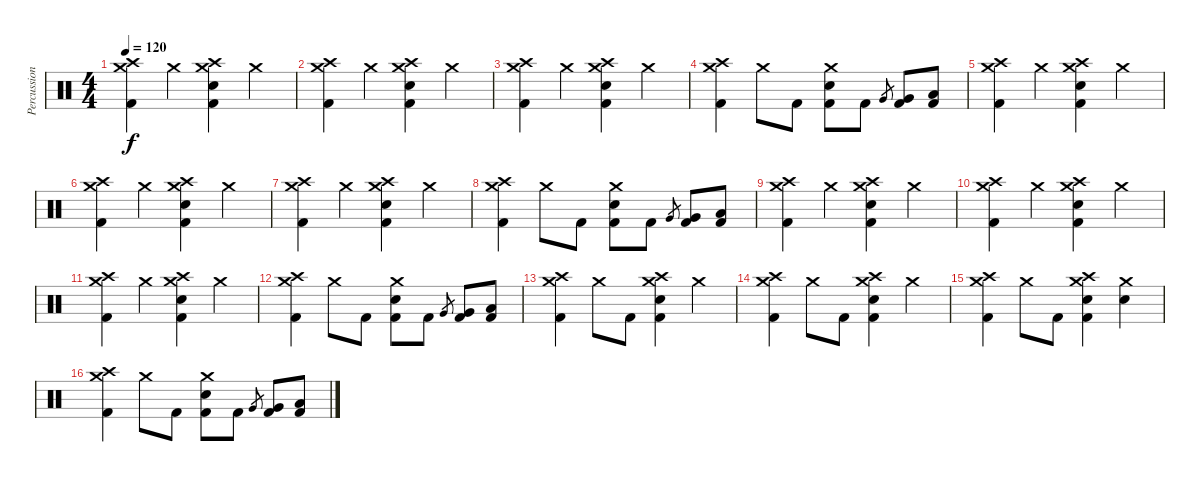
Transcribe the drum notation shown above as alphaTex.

\track ("Percussion" "Percussion") {instrument percussion}
\staff {score}
\articulation defaults
\ts (4 4)
\tempo 120
\clef neutral
\ks c
("Crash medium (hit)" "Crash high (hit)" "Kick (hit) 2").4{dy f} "Crash medium (hit)".4 ("Crash medium (hit)" "Crash high (hit)" "Snare (hit) 2" "Kick (hit) 2").4 "Crash medium (hit)".4 |
("Crash medium (hit)" "Crash high (hit)" "Kick (hit) 2").4 "Crash medium (hit)".4 ("Crash medium (hit)" "Crash high (hit)" "Snare (hit) 2" "Kick (hit) 2").4 "Crash medium (hit)".4 |
("Crash medium (hit)" "Crash high (hit)" "Kick (hit) 2").4 "Crash medium (hit)".4 ("Crash medium (hit)" "Crash high (hit)" "Snare (hit) 2" "Kick (hit) 2").4 "Crash medium (hit)".4 |
("Crash medium (hit)" "Crash high (hit)" "Kick (hit) 2").4 "Crash medium (hit)".8 "Kick (hit) 2".8 ("Crash medium (hit)" "Snare (hit) 2" "Kick (hit) 2").8 "Kick (hit) 2".8 "Very Low Tom (hit)".8{gr} ("Very Low Tom (hit)" "Kick (hit) 2").8 ("Low Floor Tom (hit)" "Kick (hit) 2").8 |
("Crash medium (hit)" "Crash high (hit)" "Kick (hit) 2").4 "Crash medium (hit)".4 ("Crash medium (hit)" "Crash high (hit)" "Snare (hit) 2" "Kick (hit) 2").4 "Crash medium (hit)".4 |
("Crash medium (hit)" "Crash high (hit)" "Kick (hit) 2").4 "Crash medium (hit)".4 ("Crash medium (hit)" "Crash high (hit)" "Snare (hit) 2" "Kick (hit) 2").4 "Crash medium (hit)".4 |
("Crash medium (hit)" "Crash high (hit)" "Kick (hit) 2").4 "Crash medium (hit)".4 ("Crash medium (hit)" "Crash high (hit)" "Snare (hit) 2" "Kick (hit) 2").4 "Crash medium (hit)".4 |
("Crash medium (hit)" "Crash high (hit)" "Kick (hit) 2").4 "Crash medium (hit)".8 "Kick (hit) 2".8 ("Crash medium (hit)" "Snare (hit) 2" "Kick (hit) 2").8 "Kick (hit) 2".8 "Very Low Tom (hit)".8{gr} ("Very Low Tom (hit)" "Kick (hit) 2").8 ("Low Floor Tom (hit)" "Kick (hit) 2").8 |
("Crash medium (hit)" "Crash high (hit)" "Kick (hit) 2").4 "Crash medium (hit)".4 ("Crash medium (hit)" "Crash high (hit)" "Snare (hit) 2" "Kick (hit) 2").4 "Crash medium (hit)".4 |
("Crash medium (hit)" "Crash high (hit)" "Kick (hit) 2").4 "Crash medium (hit)".4 ("Crash medium (hit)" "Crash high (hit)" "Snare (hit) 2" "Kick (hit) 2").4 "Crash medium (hit)".4 |
("Crash medium (hit)" "Crash high (hit)" "Kick (hit) 2").4 "Crash medium (hit)".4 ("Crash medium (hit)" "Crash high (hit)" "Snare (hit) 2" "Kick (hit) 2").4 "Crash medium (hit)".4 |
("Crash medium (hit)" "Crash high (hit)" "Kick (hit) 2").4 "Crash medium (hit)".8 "Kick (hit) 2".8 ("Crash medium (hit)" "Snare (hit) 2" "Kick (hit) 2").8 "Kick (hit) 2".8 "Very Low Tom (hit)".8{gr} ("Very Low Tom (hit)" "Kick (hit) 2").8 ("Low Floor Tom (hit)" "Kick (hit) 2").8 |
("Crash medium (hit)" "Crash high (hit)" "Kick (hit) 2").4 "Crash medium (hit)".8 "Kick (hit) 2".8 ("Crash medium (hit)" "Crash high (hit)" "Snare (hit) 2" "Kick (hit) 2").4 "Crash medium (hit)".4 |
("Crash medium (hit)" "Crash high (hit)" "Kick (hit) 2").4 "Crash medium (hit)".8 "Kick (hit) 2".8 ("Crash medium (hit)" "Crash high (hit)" "Snare (hit) 2" "Kick (hit) 2").4 "Crash medium (hit)".4 |
("Crash medium (hit)" "Crash high (hit)" "Kick (hit) 2").4 "Crash medium (hit)".8 "Kick (hit) 2".8 ("Crash medium (hit)" "Crash high (hit)" "Snare (hit) 2" "Kick (hit) 2").4 ("Crash medium (hit)" "Snare (hit) 2").4 |
("Crash medium (hit)" "Crash high (hit)" "Kick (hit) 2").4 "Crash medium (hit)".8 "Kick (hit) 2".8 ("Crash medium (hit)" "Snare (hit) 2" "Kick (hit) 2").8 "Kick (hit) 2".8 "Very Low Tom (hit)".8{gr} ("Very Low Tom (hit)" "Kick (hit) 2").8 ("Low Floor Tom (hit)" "Kick (hit) 2").8
